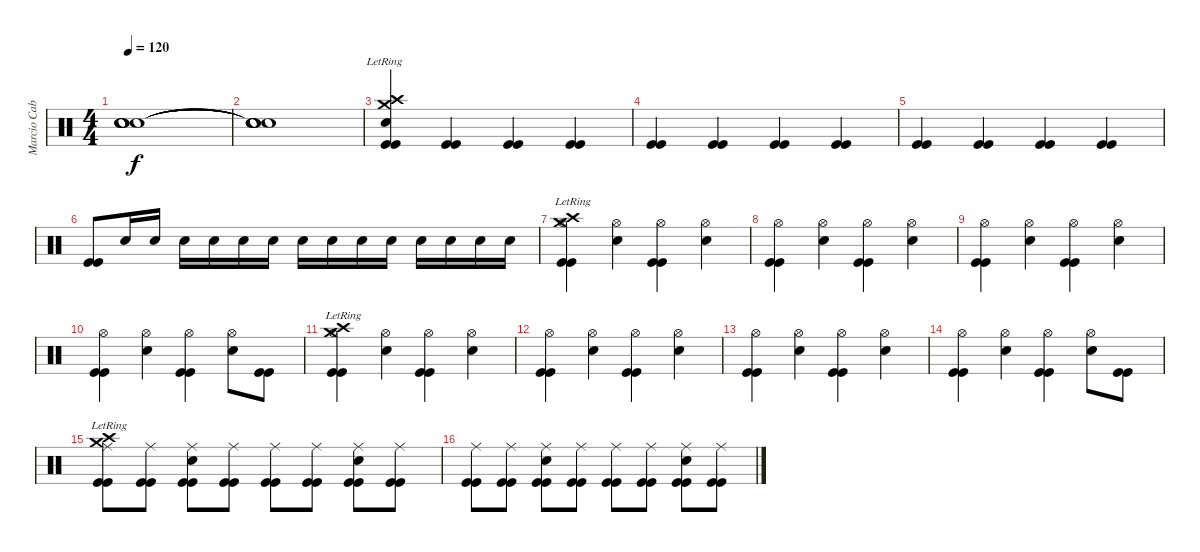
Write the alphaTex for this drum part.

\track ("Marcio Cabrita" "Marcio Cab") {instrument percussion}
\staff {score}
\articulation defaults
\ts (4 4)
\tempo 120
\clef neutral
\ks c
("Snare (hit)"{t} "Snare (hit)"{t} "Snare (hit)"{t} "Snare (hit)"{t} "Snare (hit)"{t}).1{dy f} |
("Snare (hit)"{t} "Snare (hit)"{t} "Snare (hit)"{t} "Snare (hit)"{t} "Snare (hit)"{t}).1 |
("Crash high (hit)"{lr} "Crash medium (hit)"{lr} "Snare (hit) 2" "Kick (hit)" "Kick (hit)").4 ("Kick (hit)" "Kick (hit)").4 ("Kick (hit)" "Kick (hit)").4 ("Kick (hit)" "Kick (hit)").4 |
("Kick (hit)" "Kick (hit)").4 ("Kick (hit)" "Kick (hit)").4 ("Kick (hit)" "Kick (hit)").4 ("Kick (hit)" "Kick (hit)").4 |
("Kick (hit)" "Kick (hit)").4 ("Kick (hit)" "Kick (hit)").4 ("Kick (hit)" "Kick (hit)").4 ("Kick (hit)" "Kick (hit)").4 |
("Kick (hit)" "Kick (hit)").8 "Snare (hit) 2".16{volume 5} "Snare (hit) 2".16 "Snare (hit) 2".16{volume 6} "Snare (hit) 2".16 "Snare (hit) 2".16{volume 9} "Snare (hit) 2".16 "Snare (hit) 2".16{volume 11} "Snare (hit) 2".16 "Snare (hit) 2".16{volume 12} "Snare (hit) 2".16 "Snare (hit) 2".16{volume 13} "Snare (hit) 2".16 "Snare (hit) 2".16{volume 16} "Snare (hit) 2".16 |
("Crash high (hit)"{lr} "Crash medium (hit)"{lr} "Hi-Hat (open)" "Kick (hit)" "Kick (hit)").4 ("Snare (hit) 2" "Hi-Hat (open)").4 ("Hi-Hat (open)" "Kick (hit)" "Kick (hit)").4 ("Snare (hit) 2" "Hi-Hat (open)").4 |
("Hi-Hat (open)" "Kick (hit)" "Kick (hit)").4 ("Snare (hit) 2" "Hi-Hat (open)").4 ("Hi-Hat (open)" "Kick (hit)" "Kick (hit)").4 ("Snare (hit) 2" "Hi-Hat (open)").4 |
("Hi-Hat (open)" "Kick (hit)" "Kick (hit)").4 ("Snare (hit) 2" "Hi-Hat (open)").4 ("Hi-Hat (open)" "Kick (hit)" "Kick (hit)").4 ("Snare (hit) 2" "Hi-Hat (open)").4 |
("Hi-Hat (open)" "Kick (hit)" "Kick (hit)").4 ("Snare (hit) 2" "Hi-Hat (open)").4 ("Hi-Hat (open)" "Kick (hit)" "Kick (hit)").4 ("Snare (hit) 2" "Hi-Hat (open)").8 ("Kick (hit)" "Kick (hit)").8 |
("Crash high (hit)"{lr} "Crash medium (hit)"{lr} "Hi-Hat (open)" "Kick (hit)" "Kick (hit)").4 ("Snare (hit) 2" "Hi-Hat (open)").4 ("Hi-Hat (open)" "Kick (hit)" "Kick (hit)").4 ("Snare (hit) 2" "Hi-Hat (open)").4 |
("Hi-Hat (open)" "Kick (hit)" "Kick (hit)").4 ("Snare (hit) 2" "Hi-Hat (open)").4 ("Hi-Hat (open)" "Kick (hit)" "Kick (hit)").4 ("Snare (hit) 2" "Hi-Hat (open)").4 |
("Hi-Hat (open)" "Kick (hit)" "Kick (hit)").4 ("Snare (hit) 2" "Hi-Hat (open)").4 ("Hi-Hat (open)" "Kick (hit)" "Kick (hit)").4 ("Snare (hit) 2" "Hi-Hat (open)").4 |
("Hi-Hat (open)" "Kick (hit)" "Kick (hit)").4 ("Snare (hit) 2" "Hi-Hat (open)").4 ("Hi-Hat (open)" "Kick (hit)" "Kick (hit)").4 ("Snare (hit) 2" "Hi-Hat (open)").8 ("Kick (hit)" "Kick (hit)").8 |
("Crash high (hit)"{lr} "Crash medium (hit)"{lr} "Ride (middle)" "Kick (hit)" "Kick (hit)").8 ("Ride (middle)" "Kick (hit)" "Kick (hit)").8 ("Snare (hit) 2" "Ride (middle)" "Kick (hit)" "Kick (hit)").8 ("Ride (middle)" "Kick (hit)" "Kick (hit)").8 ("Ride (middle)" "Kick (hit)" "Kick (hit)").8 ("Ride (middle)" "Kick (hit)" "Kick (hit)").8 ("Snare (hit) 2" "Ride (middle)" "Kick (hit)" "Kick (hit)").8 ("Ride (middle)" "Kick (hit)" "Kick (hit)").8 |
("Ride (middle)" "Kick (hit)" "Kick (hit)").8 ("Ride (middle)" "Kick (hit)" "Kick (hit)").8 ("Snare (hit) 2" "Ride (middle)" "Kick (hit)" "Kick (hit)").8 ("Ride (middle)" "Kick (hit)" "Kick (hit)").8 ("Ride (middle)" "Kick (hit)" "Kick (hit)").8 ("Ride (middle)" "Kick (hit)" "Kick (hit)").8 ("Snare (hit) 2" "Ride (middle)" "Kick (hit)" "Kick (hit)").8 ("Ride (middle)" "Kick (hit)" "Kick (hit)").8
